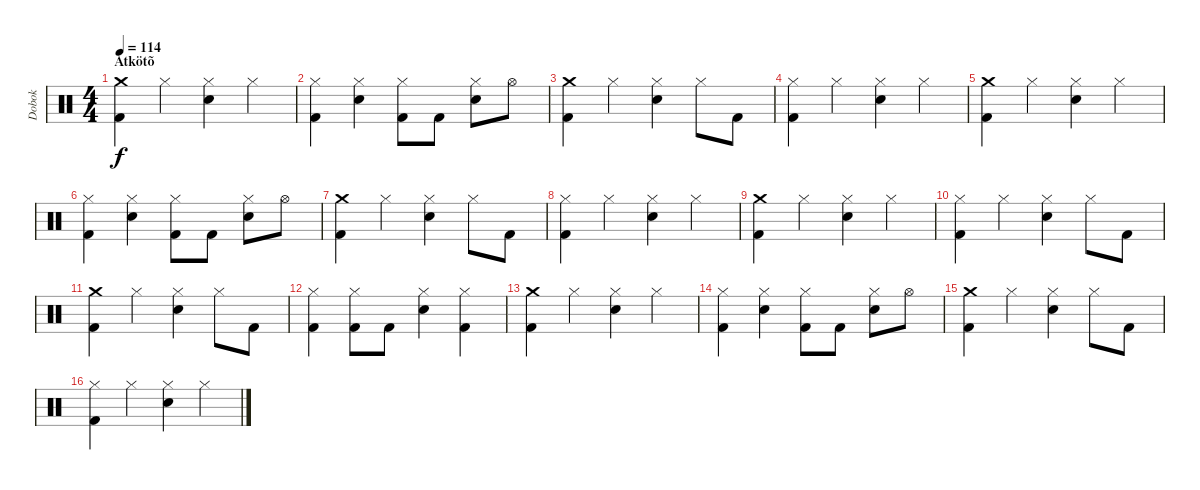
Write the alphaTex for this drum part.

\track ("Dobok" "Dobok") {instrument percussion}
\staff {score}
\articulation defaults
\ts (4 4)
\section ("" "Átkötõ")
\tempo 114
\clef neutral
\ks c
("Crash medium (hit)" "Kick (hit) 2").4{dy f} "Hi-Hat (closed)".4 ("Hi-Hat (closed)" "Snare (hit) 2").4 "Hi-Hat (closed)".4 |
("Hi-Hat (closed)" "Kick (hit) 2").4 ("Hi-Hat (closed)" "Snare (hit) 2").4 ("Hi-Hat (closed)" "Kick (hit) 2").8 "Kick (hit) 2".8 ("Hi-Hat (closed)" "Snare (hit) 2").8 "Hi-Hat (open)".8 |
("Crash medium (hit)" "Kick (hit) 2").4 "Hi-Hat (closed)".4 ("Hi-Hat (closed)" "Snare (hit) 2").4 "Hi-Hat (closed)".8 "Kick (hit) 2".8 |
("Hi-Hat (closed)" "Kick (hit) 2").4 "Hi-Hat (closed)".4 ("Hi-Hat (closed)" "Snare (hit) 2").4 "Hi-Hat (closed)".4 |
("Crash medium (hit)" "Kick (hit) 2").4 "Hi-Hat (closed)".4 ("Hi-Hat (closed)" "Snare (hit) 2").4 "Hi-Hat (closed)".4 |
("Hi-Hat (closed)" "Kick (hit) 2").4 ("Hi-Hat (closed)" "Snare (hit) 2").4 ("Hi-Hat (closed)" "Kick (hit) 2").8 "Kick (hit) 2".8 ("Hi-Hat (closed)" "Snare (hit) 2").8 "Hi-Hat (open)".8 |
("Crash medium (hit)" "Kick (hit) 2").4 "Hi-Hat (closed)".4 ("Hi-Hat (closed)" "Snare (hit) 2").4 "Hi-Hat (closed)".8 "Kick (hit) 2".8 |
("Hi-Hat (closed)" "Kick (hit) 2").4 "Hi-Hat (closed)".4 ("Hi-Hat (closed)" "Snare (hit) 2").4 "Hi-Hat (closed)".4 |
("Crash medium (hit)" "Kick (hit) 2").4 "Hi-Hat (closed)".4 ("Hi-Hat (closed)" "Snare (hit) 2").4 "Hi-Hat (closed)".4 |
("Hi-Hat (closed)" "Kick (hit) 2").4 "Hi-Hat (closed)".4 ("Hi-Hat (closed)" "Snare (hit) 2").4 "Hi-Hat (closed)".8 "Kick (hit) 2".8 |
("Crash medium (hit)" "Kick (hit) 2").4 "Hi-Hat (closed)".4 ("Hi-Hat (closed)" "Snare (hit) 2").4 "Hi-Hat (closed)".8 "Kick (hit) 2".8 |
("Hi-Hat (closed)" "Kick (hit) 2").4 ("Hi-Hat (closed)" "Kick (hit) 2").8 "Kick (hit) 2".8 ("Hi-Hat (closed)" "Snare (hit) 2").4 ("Hi-Hat (closed)" "Kick (hit) 2").4 |
("Crash medium (hit)" "Kick (hit) 2").4 "Hi-Hat (closed)".4 ("Hi-Hat (closed)" "Snare (hit) 2").4 "Hi-Hat (closed)".4 |
("Hi-Hat (closed)" "Kick (hit) 2").4 ("Hi-Hat (closed)" "Snare (hit) 2").4 ("Hi-Hat (closed)" "Kick (hit) 2").8 "Kick (hit) 2".8 ("Hi-Hat (closed)" "Snare (hit) 2").8 "Hi-Hat (open)".8 |
("Crash medium (hit)" "Kick (hit) 2").4 "Hi-Hat (closed)".4 ("Hi-Hat (closed)" "Snare (hit) 2").4 "Hi-Hat (closed)".8 "Kick (hit) 2".8 |
("Hi-Hat (closed)" "Kick (hit) 2").4 "Hi-Hat (closed)".4 ("Hi-Hat (closed)" "Snare (hit) 2").4 "Hi-Hat (closed)".4
